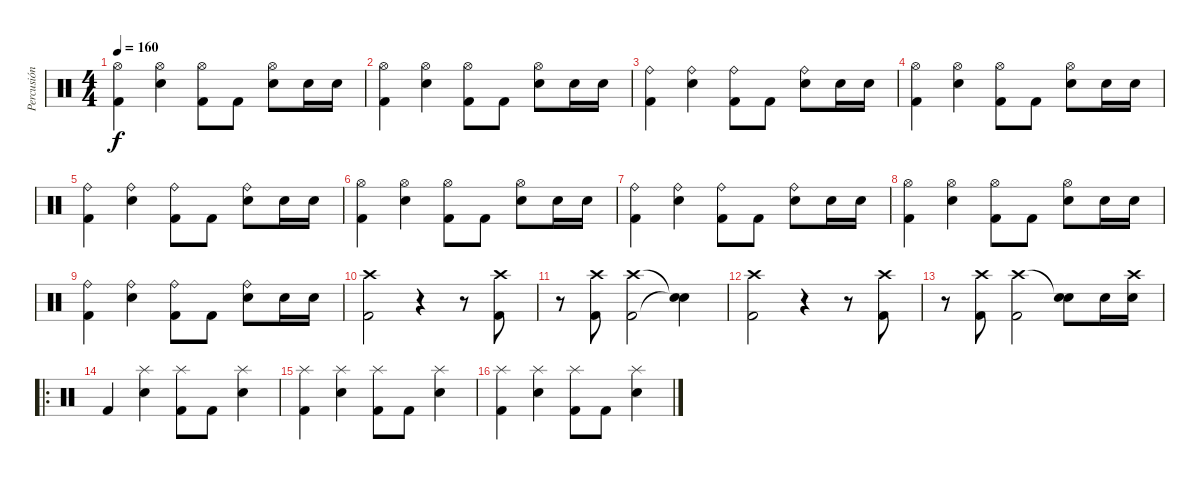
\track ("Percusión" "Percusión") {instrument percussion}
\staff {score}
\articulation defaults
\ts (4 4)
\tempo 160
\clef neutral
\ks c
("Hi-Hat (open)" "Kick (hit) 2").4{dy f} ("Hi-Hat (open)" "Snare (hit) 2").4 ("Hi-Hat (open)" "Kick (hit) 2").8 "Kick (hit) 2".8 ("Hi-Hat (open)" "Snare (hit) 2").8 "Snare (hit) 2".16 "Snare (hit) 2".16 |
("Hi-Hat (open)" "Kick (hit) 2").4 ("Hi-Hat (open)" "Snare (hit) 2").4 ("Hi-Hat (open)" "Kick (hit) 2").8 "Kick (hit) 2".8 ("Hi-Hat (open)" "Snare (hit) 2").8 "Snare (hit) 2".16 "Snare (hit) 2".16 |
("Ride (bell)" "Kick (hit) 2").4 ("Ride (bell)" "Snare (hit) 2").4 ("Ride (bell)" "Kick (hit) 2").8 "Kick (hit) 2".8 ("Ride (bell)" "Snare (hit) 2").8 "Snare (hit) 2".16 "Snare (hit) 2".16 |
("Hi-Hat (open)" "Kick (hit) 2").4 ("Hi-Hat (open)" "Snare (hit) 2").4 ("Hi-Hat (open)" "Kick (hit) 2").8 "Kick (hit) 2".8 ("Hi-Hat (open)" "Snare (hit) 2").8 "Snare (hit) 2".16 "Snare (hit) 2".16 |
("Ride (bell)" "Kick (hit) 2").4 ("Ride (bell)" "Snare (hit) 2").4 ("Ride (bell)" "Kick (hit) 2").8 "Kick (hit) 2".8 ("Ride (bell)" "Snare (hit) 2").8 "Snare (hit) 2".16 "Snare (hit) 2".16 |
("Hi-Hat (open)" "Kick (hit) 2").4 ("Hi-Hat (open)" "Snare (hit) 2").4 ("Hi-Hat (open)" "Kick (hit) 2").8 "Kick (hit) 2".8 ("Hi-Hat (open)" "Snare (hit) 2").8 "Snare (hit) 2".16 "Snare (hit) 2".16 |
("Ride (bell)" "Kick (hit) 2").4 ("Ride (bell)" "Snare (hit) 2").4 ("Ride (bell)" "Kick (hit) 2").8 "Kick (hit) 2".8 ("Ride (bell)" "Snare (hit) 2").8 "Snare (hit) 2".16 "Snare (hit) 2".16 |
("Hi-Hat (open)" "Kick (hit) 2").4 ("Hi-Hat (open)" "Snare (hit) 2").4 ("Hi-Hat (open)" "Kick (hit) 2").8 "Kick (hit) 2".8 ("Hi-Hat (open)" "Snare (hit) 2").8 "Snare (hit) 2".16 "Snare (hit) 2".16 |
("Ride (bell)" "Kick (hit) 2").4 ("Ride (bell)" "Snare (hit) 2").4 ("Ride (bell)" "Kick (hit) 2").8 "Kick (hit) 2".8 ("Ride (bell)" "Snare (hit) 2").8 "Snare (hit) 2".16 "Snare (hit) 2".16 |
("Crash high (hit)" "Kick (hit) 2").2 r.4 r.8 ("Crash high (hit)" "Kick (hit) 2").8 |
r.8 ("Crash high (hit)" "Kick (hit) 2").8 ("Crash high (hit)" "Kick (hit) 2").2 ("Snare (hit)"{t} "Snare (hit)"{t}).4 |
("Crash high (hit)" "Kick (hit) 2").2 r.4 r.8 ("Crash high (hit)" "Kick (hit) 2").8 |
r.8 ("Crash high (hit)" "Kick (hit) 2").8 ("Crash high (hit)" "Kick (hit) 2").2 ("Snare (hit)"{t} "Snare (hit) 2").8 "Snare (hit) 2".16 ("Crash high (hit)" "Snare (hit) 2").16 |
\ro "Kick (hit) 2".4
("Splash (hit)" "Snare (hit) 2").4 ("Splash (hit)" "Kick (hit) 2").8 "Kick (hit) 2".8 ("Splash (hit)" "Snare (hit) 2").4 |
("Splash (hit)" "Kick (hit) 2").4 ("Splash (hit)" "Snare (hit) 2").4 ("Splash (hit)" "Kick (hit) 2").8 "Kick (hit) 2".8 ("Splash (hit)" "Snare (hit) 2").4 |
("Splash (hit)" "Kick (hit) 2").4 ("Splash (hit)" "Snare (hit) 2").4 ("Splash (hit)" "Kick (hit) 2").8 "Kick (hit) 2".8 ("Splash (hit)" "Snare (hit) 2").4
